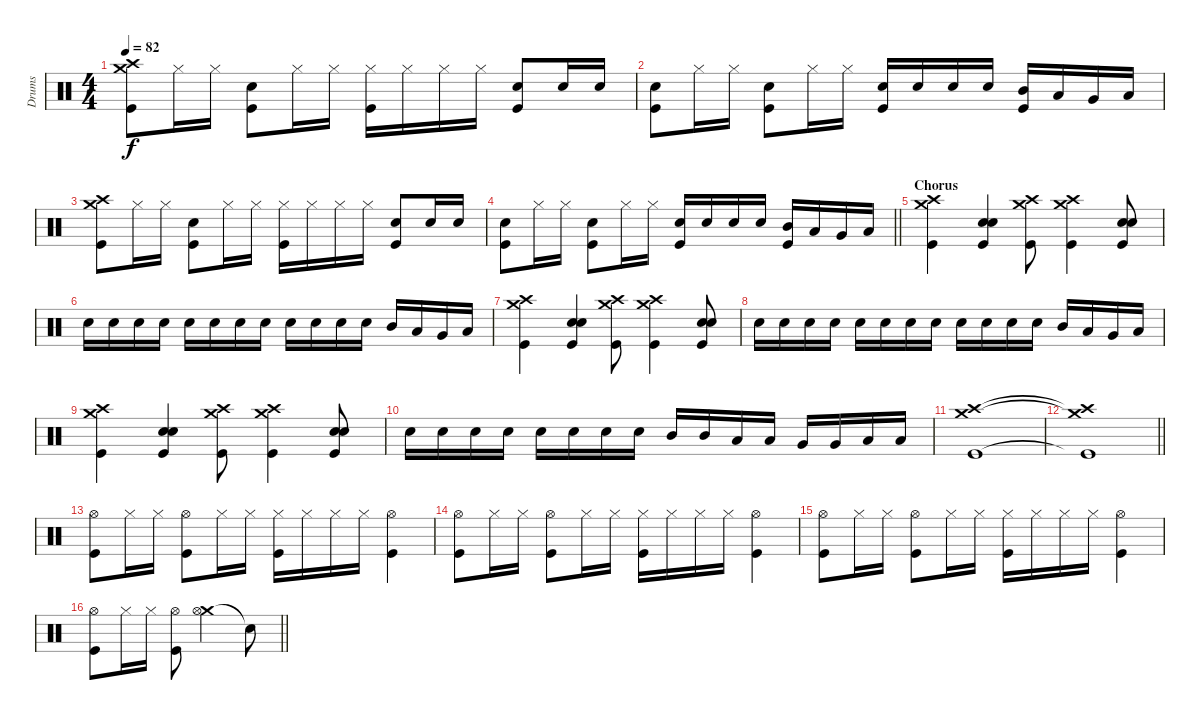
\track ("Drums" "Drums") {instrument percussion}
\staff {score}
\articulation defaults
\ts (4 4)
\tempo 82
\clef neutral
\ks c
("Crash medium (hit)" "Crash high (hit)" "Kick (hit)").8{dy f} "Hi-Hat (closed)".16 "Hi-Hat (closed)".16 ("Snare (hit) 2" "Kick (hit)").8 "Hi-Hat (closed)".16 "Hi-Hat (closed)".16 ("Hi-Hat (closed)" "Kick (hit)").16 "Hi-Hat (closed)".16 "Hi-Hat (closed)".16 "Hi-Hat (closed)".16 ("Snare (hit) 2" "Kick (hit)").8 "Snare (hit) 2".16 "Snare (hit) 2".16 |
("Snare (hit) 2" "Kick (hit)").8 "Hi-Hat (closed)".16 "Hi-Hat (closed)".16 ("Snare (hit) 2" "Kick (hit)").8 "Hi-Hat (closed)".16 "Hi-Hat (closed)".16 ("Snare (hit) 2" "Kick (hit)").16 "Snare (hit) 2".16 "Snare (hit) 2".16 "Snare (hit) 2".16 ("Mid Tom (hit)" "Kick (hit)").16 "Low Tom (hit)".16 "Very Low Tom (hit)".16 "Low Floor Tom (hit)".16 |
("Crash medium (hit)" "Crash high (hit)" "Kick (hit)").8 "Hi-Hat (closed)".16 "Hi-Hat (closed)".16 ("Snare (hit) 2" "Kick (hit)").8 "Hi-Hat (closed)".16 "Hi-Hat (closed)".16 ("Hi-Hat (closed)" "Kick (hit)").16 "Hi-Hat (closed)".16 "Hi-Hat (closed)".16 "Hi-Hat (closed)".16 ("Snare (hit) 2" "Kick (hit)").8 "Snare (hit) 2".16 "Snare (hit) 2".16 |
\barLineRight lightlight
("Snare (hit) 2" "Kick (hit)").8 "Hi-Hat (closed)".16 "Hi-Hat (closed)".16 ("Snare (hit) 2" "Kick (hit)").8 "Hi-Hat (closed)".16 "Hi-Hat (closed)".16 ("Snare (hit) 2" "Kick (hit)").16 "Snare (hit) 2".16 "Snare (hit) 2".16 "Snare (hit) 2".16 ("Mid Tom (hit)" "Kick (hit)").16 "Low Tom (hit)".16 "Very Low Tom (hit)".16 "Low Floor Tom (hit)".16 |
\section ("" "Chorus")
("Crash medium (hit)" "Crash high (hit)" "Kick (hit)").4 ("Snare (hit) 2" "Snare (hit) 2" "Kick (hit)").4 ("Crash medium (hit)" "Crash high (hit)" "Kick (hit)").8 ("Crash medium (hit)" "Crash high (hit)" "Kick (hit)").4 ("Snare (hit) 2" "Snare (hit) 2" "Kick (hit)").8 |
"Snare (hit) 2".16 "Snare (hit) 2".16 "Snare (hit) 2".16 "Snare (hit) 2".16 "Snare (hit) 2".16 "Snare (hit) 2".16 "Snare (hit) 2".16 "Snare (hit) 2".16 "Snare (hit) 2".16 "Snare (hit) 2".16 "Snare (hit) 2".16 "Snare (hit) 2".16 "Mid Tom (hit)".16 "Low Tom (hit)".16 "Very Low Tom (hit)".16 "Low Floor Tom (hit)".16 |
("Crash medium (hit)" "Crash high (hit)" "Kick (hit)").4 ("Snare (hit) 2" "Snare (hit) 2" "Kick (hit)").4 ("Crash medium (hit)" "Crash high (hit)" "Kick (hit)").8 ("Crash medium (hit)" "Crash high (hit)" "Kick (hit)").4 ("Snare (hit) 2" "Snare (hit) 2" "Kick (hit)").8 |
"Snare (hit) 2".16 "Snare (hit) 2".16 "Snare (hit) 2".16 "Snare (hit) 2".16 "Snare (hit) 2".16 "Snare (hit) 2".16 "Snare (hit) 2".16 "Snare (hit) 2".16 "Snare (hit) 2".16 "Snare (hit) 2".16 "Snare (hit) 2".16 "Snare (hit) 2".16 "Mid Tom (hit)".16 "Low Tom (hit)".16 "Very Low Tom (hit)".16 "Low Floor Tom (hit)".16 |
("Crash medium (hit)" "Crash high (hit)" "Kick (hit)").4 ("Snare (hit) 2" "Snare (hit) 2" "Kick (hit)").4 ("Crash medium (hit)" "Crash high (hit)" "Kick (hit)").8 ("Crash medium (hit)" "Crash high (hit)" "Kick (hit)").4 ("Snare (hit) 2" "Snare (hit) 2" "Kick (hit)").8 |
"Snare (hit) 2".16 "Snare (hit) 2".16 "Snare (hit) 2".16 "Snare (hit) 2".16 "Snare (hit) 2".16 "Snare (hit) 2".16 "Snare (hit) 2".16 "Snare (hit) 2".16 "Mid Tom (hit)".16 "Mid Tom (hit)".16 "Low Tom (hit)".16 "Low Tom (hit)".16 "Very Low Tom (hit)".16 "Very Low Tom (hit)".16 "Low Floor Tom (hit)".16 "Low Floor Tom (hit)".16 |
("Crash medium (hit)" "Crash high (hit)" "Kick (hit)").1 |
\barLineRight lightlight
("Crash medium (hit)"{t} "Crash high (hit)"{t} "Kick (hit)"{t}).1 |
("Hi-Hat (open)" "Kick (hit)").8 "Hi-Hat (closed)".16 "Hi-Hat (closed)".16 ("Hi-Hat (open)" "Kick (hit)").8 "Hi-Hat (closed)".16 "Hi-Hat (closed)".16 ("Hi-Hat (closed)" "Kick (hit)").16 "Hi-Hat (closed)".16 "Hi-Hat (closed)".16 "Hi-Hat (closed)".16 ("Hi-Hat (open)" "Kick (hit)").4 |
("Hi-Hat (open)" "Kick (hit)").8 "Hi-Hat (closed)".16 "Hi-Hat (closed)".16 ("Hi-Hat (open)" "Kick (hit)").8 "Hi-Hat (closed)".16 "Hi-Hat (closed)".16 ("Hi-Hat (closed)" "Kick (hit)").16 "Hi-Hat (closed)".16 "Hi-Hat (closed)".16 "Hi-Hat (closed)".16 ("Hi-Hat (open)" "Kick (hit)").4 |
("Hi-Hat (open)" "Kick (hit)").8 "Hi-Hat (closed)".16 "Hi-Hat (closed)".16 ("Hi-Hat (open)" "Kick (hit)").8 "Hi-Hat (closed)".16 "Hi-Hat (closed)".16 ("Hi-Hat (closed)" "Kick (hit)").16 "Hi-Hat (closed)".16 "Hi-Hat (closed)".16 "Hi-Hat (closed)".16 ("Hi-Hat (open)" "Kick (hit)").4 |
\barLineRight lightlight
("Hi-Hat (open)" "Kick (hit)").8 "Hi-Hat (closed)".16 "Hi-Hat (closed)".16 ("Hi-Hat (open)" "Kick (hit)").8 ("Crash medium (hit)" "Hi-Hat (open)").2 "Snare (hit)"{t}.8
